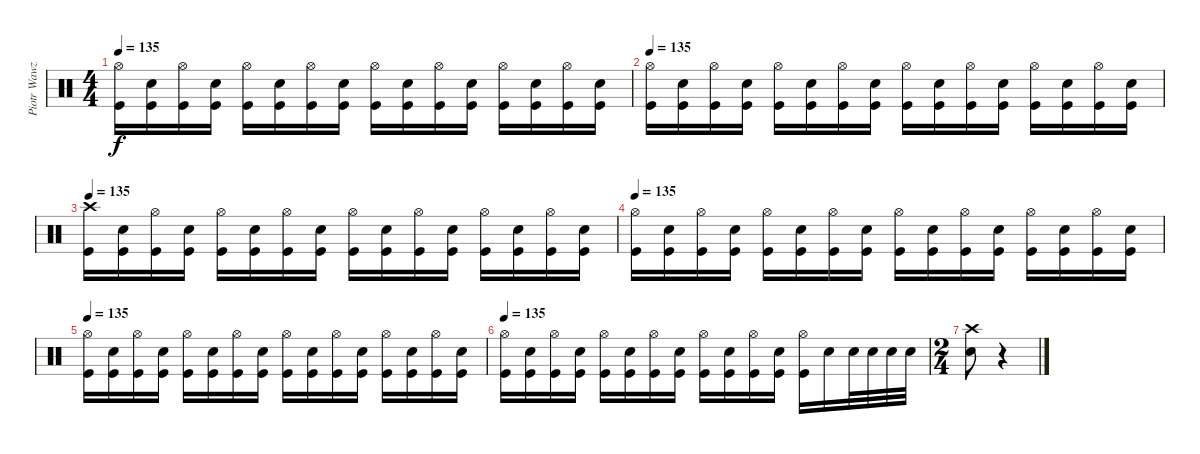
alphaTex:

\track ("Piotr Wawzeniuk (Drums)" "Piotr Wawz") {instrument percussion}
\staff {score}
\articulation defaults
\ts (4 4)
\tempo 135
\clef neutral
\ks c
("Kick (hit)" "Hi-Hat (open)").16{dy f} ("Kick (hit)" "Electric Snare (hit)").16 ("Kick (hit)" "Hi-Hat (open)").16 ("Kick (hit)" "Electric Snare (hit)").16 ("Kick (hit)" "Hi-Hat (open)").16 ("Kick (hit)" "Electric Snare (hit)").16 ("Kick (hit)" "Hi-Hat (open)").16 ("Kick (hit)" "Electric Snare (hit)").16 ("Kick (hit)" "Hi-Hat (open)").16 ("Kick (hit)" "Electric Snare (hit)").16 ("Kick (hit)" "Hi-Hat (open)").16 ("Kick (hit)" "Electric Snare (hit)").16 ("Kick (hit)" "Hi-Hat (open)").16 ("Kick (hit)" "Electric Snare (hit)").16 ("Kick (hit)" "Hi-Hat (open)").16 ("Kick (hit)" "Electric Snare (hit)").16 |
\tempo 135
("Kick (hit)" "Hi-Hat (open)").16 ("Kick (hit)" "Electric Snare (hit)").16 ("Kick (hit)" "Hi-Hat (open)").16 ("Kick (hit)" "Electric Snare (hit)").16 ("Kick (hit)" "Hi-Hat (open)").16 ("Kick (hit)" "Electric Snare (hit)").16 ("Kick (hit)" "Hi-Hat (open)").16 ("Kick (hit)" "Electric Snare (hit)").16 ("Kick (hit)" "Hi-Hat (open)").16 ("Kick (hit)" "Electric Snare (hit)").16 ("Kick (hit)" "Hi-Hat (open)").16 ("Kick (hit)" "Electric Snare (hit)").16 ("Kick (hit)" "Hi-Hat (open)").16 ("Kick (hit)" "Electric Snare (hit)").16 ("Kick (hit)" "Hi-Hat (open)").16 ("Kick (hit)" "Electric Snare (hit)").16 |
\tempo 130
\tempo 135
("Kick (hit)" "Crash high (hit)").16 ("Kick (hit)" "Electric Snare (hit)").16 ("Kick (hit)" "Hi-Hat (open)").16 ("Kick (hit)" "Electric Snare (hit)").16 ("Kick (hit)" "Hi-Hat (open)").16 ("Kick (hit)" "Electric Snare (hit)").16 ("Kick (hit)" "Hi-Hat (open)").16 ("Kick (hit)" "Electric Snare (hit)").16 ("Kick (hit)" "Hi-Hat (open)").16 ("Kick (hit)" "Electric Snare (hit)").16 ("Kick (hit)" "Hi-Hat (open)").16 ("Kick (hit)" "Electric Snare (hit)").16 ("Kick (hit)" "Hi-Hat (open)").16 ("Kick (hit)" "Electric Snare (hit)").16 ("Kick (hit)" "Hi-Hat (open)").16 ("Kick (hit)" "Electric Snare (hit)").16 |
\tempo 130
\tempo 135
("Kick (hit)" "Hi-Hat (open)").16 ("Kick (hit)" "Electric Snare (hit)").16 ("Kick (hit)" "Hi-Hat (open)").16 ("Kick (hit)" "Electric Snare (hit)").16 ("Kick (hit)" "Hi-Hat (open)").16 ("Kick (hit)" "Electric Snare (hit)").16 ("Kick (hit)" "Hi-Hat (open)").16 ("Kick (hit)" "Electric Snare (hit)").16 ("Kick (hit)" "Hi-Hat (open)").16 ("Kick (hit)" "Electric Snare (hit)").16 ("Kick (hit)" "Hi-Hat (open)").16 ("Kick (hit)" "Electric Snare (hit)").16 ("Kick (hit)" "Hi-Hat (open)").16 ("Kick (hit)" "Electric Snare (hit)").16 ("Kick (hit)" "Hi-Hat (open)").16 ("Kick (hit)" "Electric Snare (hit)").16 |
\tempo 130
\tempo 135
("Kick (hit)" "Hi-Hat (open)").16 ("Kick (hit)" "Electric Snare (hit)").16 ("Kick (hit)" "Hi-Hat (open)").16 ("Kick (hit)" "Electric Snare (hit)").16 ("Kick (hit)" "Hi-Hat (open)").16 ("Kick (hit)" "Electric Snare (hit)").16 ("Kick (hit)" "Hi-Hat (open)").16 ("Kick (hit)" "Electric Snare (hit)").16 ("Kick (hit)" "Hi-Hat (open)").16 ("Kick (hit)" "Electric Snare (hit)").16 ("Kick (hit)" "Hi-Hat (open)").16 ("Kick (hit)" "Electric Snare (hit)").16 ("Kick (hit)" "Hi-Hat (open)").16 ("Kick (hit)" "Electric Snare (hit)").16 ("Kick (hit)" "Hi-Hat (open)").16 ("Kick (hit)" "Electric Snare (hit)").16 |
\tempo 130
\tempo 135
("Kick (hit)" "Hi-Hat (open)").16 ("Kick (hit)" "Electric Snare (hit)").16 ("Kick (hit)" "Hi-Hat (open)").16 ("Kick (hit)" "Electric Snare (hit)").16 ("Kick (hit)" "Hi-Hat (open)").16 ("Kick (hit)" "Electric Snare (hit)").16 ("Kick (hit)" "Hi-Hat (open)").16 ("Kick (hit)" "Electric Snare (hit)").16 ("Kick (hit)" "Hi-Hat (open)").16 ("Kick (hit)" "Electric Snare (hit)").16 ("Kick (hit)" "Hi-Hat (open)").16 ("Kick (hit)" "Electric Snare (hit)").16 ("Kick (hit)" "Hi-Hat (open)").16 "Electric Snare (hit)".16 "Electric Snare (hit)".32 "Electric Snare (hit)".32 "Electric Snare (hit)".32 "Electric Snare (hit)".32 |
\ts (2 4)
("Crash high (hit)" "Electric Snare (hit)").8 r.4
